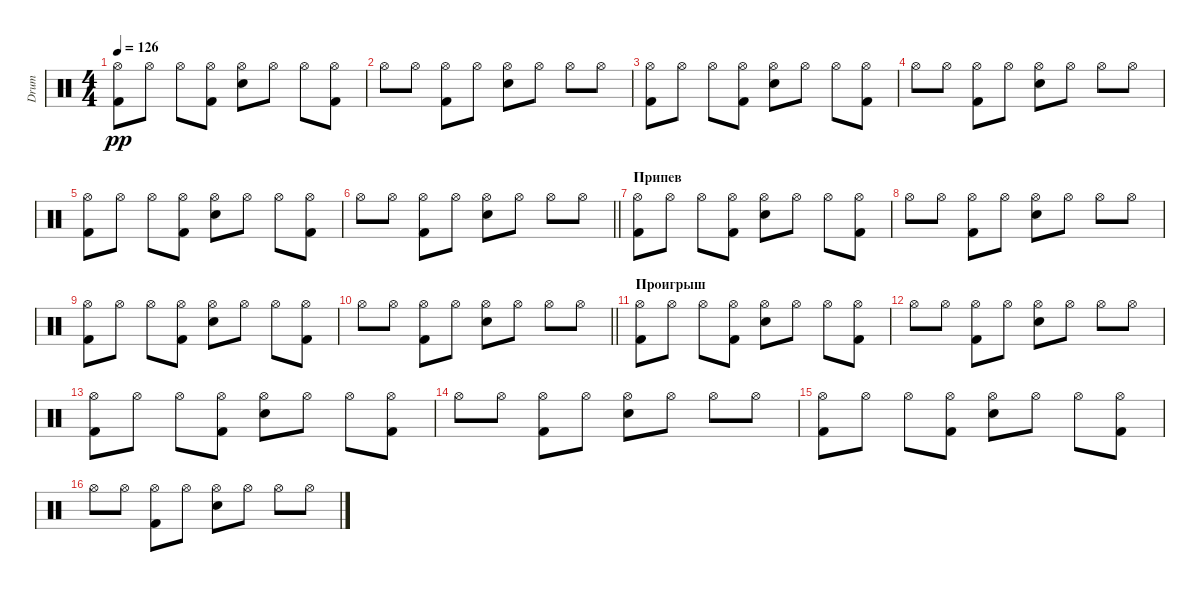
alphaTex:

\track ("Drum" "Drum") {instrument percussion}
\staff {score}
\articulation defaults
\ts (4 4)
\tempo 126
\clef neutral
\ks c
("Kick (hit) 2" "Hi-Hat (open)").8{dy pp} "Hi-Hat (open)".8 "Hi-Hat (open)".8 ("Hi-Hat (open)" "Kick (hit) 2").8 ("Snare (hit) 2" "Hi-Hat (open)").8 "Hi-Hat (open)".8 "Hi-Hat (open)".8 ("Hi-Hat (open)" "Kick (hit) 2").8 |
"Hi-Hat (open)".8 "Hi-Hat (open)".8 ("Hi-Hat (open)" "Kick (hit) 2").8 "Hi-Hat (open)".8 ("Snare (hit) 2" "Hi-Hat (open)").8 "Hi-Hat (open)".8 "Hi-Hat (open)".8 "Hi-Hat (open)".8 |
("Kick (hit) 2" "Hi-Hat (open)").8 "Hi-Hat (open)".8 "Hi-Hat (open)".8 ("Hi-Hat (open)" "Kick (hit) 2").8 ("Snare (hit) 2" "Hi-Hat (open)").8 "Hi-Hat (open)".8 "Hi-Hat (open)".8 ("Hi-Hat (open)" "Kick (hit) 2").8 |
"Hi-Hat (open)".8 "Hi-Hat (open)".8 ("Hi-Hat (open)" "Kick (hit) 2").8 "Hi-Hat (open)".8 ("Snare (hit) 2" "Hi-Hat (open)").8 "Hi-Hat (open)".8 "Hi-Hat (open)".8 "Hi-Hat (open)".8 |
("Kick (hit) 2" "Hi-Hat (open)").8 "Hi-Hat (open)".8 "Hi-Hat (open)".8 ("Hi-Hat (open)" "Kick (hit) 2").8 ("Snare (hit) 2" "Hi-Hat (open)").8 "Hi-Hat (open)".8 "Hi-Hat (open)".8 ("Hi-Hat (open)" "Kick (hit) 2").8 |
\barLineRight lightlight "Hi-Hat (open)".8 "Hi-Hat (open)".8
("Hi-Hat (open)" "Kick (hit) 2").8 "Hi-Hat (open)".8 ("Snare (hit) 2" "Hi-Hat (open)").8 "Hi-Hat (open)".8 "Hi-Hat (open)".8 "Hi-Hat (open)".8 |
\section ("" "Припев")
("Kick (hit) 2" "Hi-Hat (open)").8 "Hi-Hat (open)".8 "Hi-Hat (open)".8 ("Hi-Hat (open)" "Kick (hit) 2").8 ("Snare (hit) 2" "Hi-Hat (open)").8 "Hi-Hat (open)".8 "Hi-Hat (open)".8 ("Hi-Hat (open)" "Kick (hit) 2").8 |
"Hi-Hat (open)".8 "Hi-Hat (open)".8 ("Hi-Hat (open)" "Kick (hit) 2").8 "Hi-Hat (open)".8 ("Snare (hit) 2" "Hi-Hat (open)").8 "Hi-Hat (open)".8 "Hi-Hat (open)".8 "Hi-Hat (open)".8 |
("Kick (hit) 2" "Hi-Hat (open)").8 "Hi-Hat (open)".8 "Hi-Hat (open)".8 ("Hi-Hat (open)" "Kick (hit) 2").8 ("Snare (hit) 2" "Hi-Hat (open)").8 "Hi-Hat (open)".8 "Hi-Hat (open)".8 ("Hi-Hat (open)" "Kick (hit) 2").8 |
\barLineRight lightlight "Hi-Hat (open)".8 "Hi-Hat (open)".8
("Hi-Hat (open)" "Kick (hit) 2").8 "Hi-Hat (open)".8 ("Snare (hit) 2" "Hi-Hat (open)").8 "Hi-Hat (open)".8 "Hi-Hat (open)".8 "Hi-Hat (open)".8 |
\section ("" "Проигрыш")
("Kick (hit) 2" "Hi-Hat (open)").8 "Hi-Hat (open)".8 "Hi-Hat (open)".8 ("Hi-Hat (open)" "Kick (hit) 2").8 ("Snare (hit) 2" "Hi-Hat (open)").8 "Hi-Hat (open)".8 "Hi-Hat (open)".8 ("Hi-Hat (open)" "Kick (hit) 2").8 |
"Hi-Hat (open)".8 "Hi-Hat (open)".8 ("Hi-Hat (open)" "Kick (hit) 2").8 "Hi-Hat (open)".8 ("Snare (hit) 2" "Hi-Hat (open)").8 "Hi-Hat (open)".8 "Hi-Hat (open)".8 "Hi-Hat (open)".8 |
("Kick (hit) 2" "Hi-Hat (open)").8 "Hi-Hat (open)".8 "Hi-Hat (open)".8 ("Hi-Hat (open)" "Kick (hit) 2").8 ("Snare (hit) 2" "Hi-Hat (open)").8 "Hi-Hat (open)".8 "Hi-Hat (open)".8 ("Hi-Hat (open)" "Kick (hit) 2").8 |
"Hi-Hat (open)".8 "Hi-Hat (open)".8 ("Hi-Hat (open)" "Kick (hit) 2").8 "Hi-Hat (open)".8 ("Snare (hit) 2" "Hi-Hat (open)").8 "Hi-Hat (open)".8 "Hi-Hat (open)".8 "Hi-Hat (open)".8 |
("Kick (hit) 2" "Hi-Hat (open)").8 "Hi-Hat (open)".8 "Hi-Hat (open)".8 ("Hi-Hat (open)" "Kick (hit) 2").8 ("Snare (hit) 2" "Hi-Hat (open)").8 "Hi-Hat (open)".8 "Hi-Hat (open)".8 ("Hi-Hat (open)" "Kick (hit) 2").8 |
"Hi-Hat (open)".8 "Hi-Hat (open)".8 ("Hi-Hat (open)" "Kick (hit) 2").8 "Hi-Hat (open)".8 ("Snare (hit) 2" "Hi-Hat (open)").8 "Hi-Hat (open)".8 "Hi-Hat (open)".8 "Hi-Hat (open)".8
